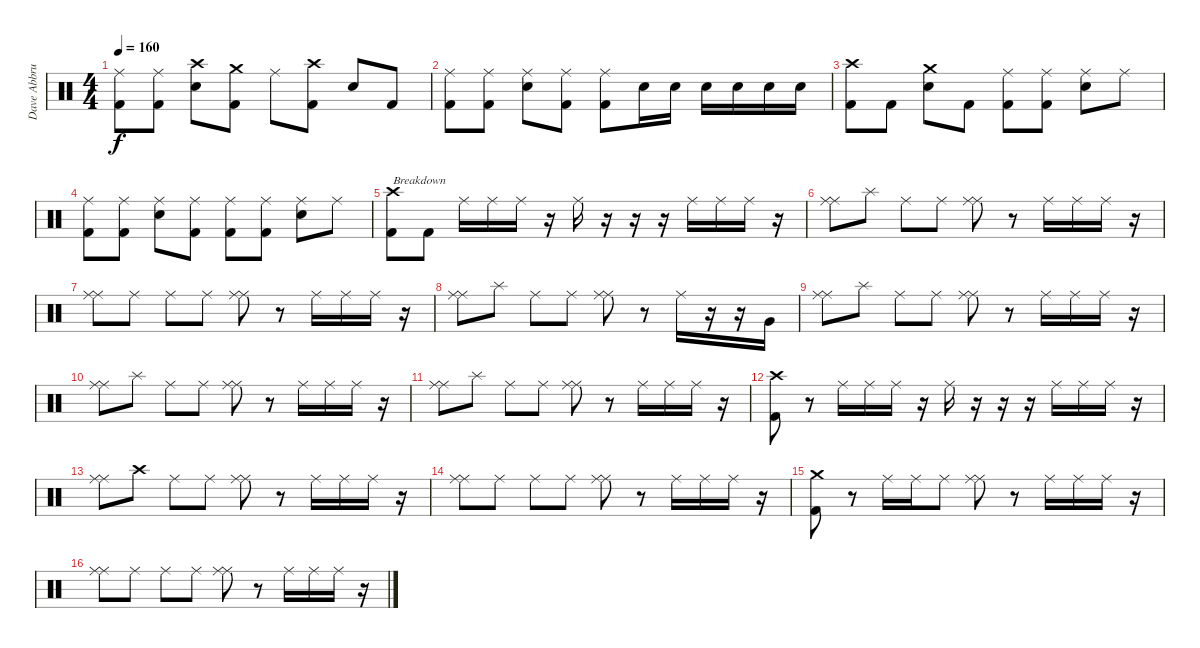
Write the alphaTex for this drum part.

\track ("Dave Abbruzzese" "Dave Abbru") {instrument percussion}
\staff {score}
\articulation defaults
\ts (4 4)
\tempo 160
\clef neutral
\ks c
("Ride (middle)" "Kick (hit) 2").8{dy f} ("Ride (middle)" "Kick (hit) 2").8 ("Crash high (hit)" "Snare (hit) 2").8 ("Crash medium (hit)" "Kick (hit) 2").8 "Ride (middle)".8 ("Crash high (hit)" "Kick (hit) 2").8 "Snare (hit) 2".8 "Kick (hit) 2".8 |
("Ride (middle)" "Kick (hit) 2").8 ("Ride (middle)" "Kick (hit) 2").8 ("Ride (middle)" "Snare (hit) 2").8 ("Ride (middle)" "Kick (hit) 2").8 ("Ride (middle)" "Kick (hit) 2").8 "Snare (hit) 2".16 "Snare (hit) 2".16 "Snare (hit) 2".16 "Snare (hit) 2".16 "Snare (hit) 2".16 "Snare (hit) 2".16 |
("Crash high (hit)" "Kick (hit) 2").8 "Kick (hit) 2".8 ("Crash medium (hit)" "Snare (hit) 2").8 "Kick (hit) 2".8 ("Ride (middle)" "Kick (hit) 2").8 ("Ride (middle)" "Kick (hit) 2").8 ("Ride (middle)" "Snare (hit) 2").8 "Ride (middle)".8 |
("Ride (middle)" "Kick (hit) 2").8 ("Ride (middle)" "Kick (hit) 2").8 ("Ride (middle)" "Snare (hit) 2").8 ("Ride (middle)" "Kick (hit) 2").8 ("Ride (middle)" "Kick (hit) 2").8 ("Ride (middle)" "Kick (hit) 2").8 ("Ride (middle)" "Snare (hit) 2").8 "Ride (middle)".8 |
("Crash high (hit)" "Kick (hit) 2").8{txt "Breakdown"} "Kick (hit) 2".8 "Ride (middle)".16 "Ride (middle)".16 "Ride (middle)".16 r.16 "Ride (middle)".16 r.16 r.16 r.16 "Ride (middle)".16 "Ride (middle)".16 "Ride (middle)".16 r.16 |
("Ride (middle)" "Ride (middle)").8 "Splash (hit)".8 "Ride (middle)".8 "Ride (middle)".8 ("Ride (middle)" "Ride (middle)").8 r.8 "Ride (middle)".16 "Ride (middle)".16 "Ride (middle)".16 r.16 |
("Ride (middle)" "Ride (middle)").8 "Ride (middle)".8 "Ride (middle)".8 "Ride (middle)".8 ("Ride (middle)" "Ride (middle)").8 r.8 "Ride (middle)".16 "Ride (middle)".16 "Ride (middle)".16 r.16 |
("Ride (middle)" "Ride (middle)").8 "Splash (hit)".8 "Ride (middle)".8 "Ride (middle)".8 ("Ride (middle)" "Ride (middle)").8 r.8 "Ride (middle)".16 r.16 r.16 "Very Low Tom (hit)".16 |
("Ride (middle)" "Ride (middle)").8 "Splash (hit)".8 "Ride (middle)".8 "Ride (middle)".8 ("Ride (middle)" "Ride (middle)").8 r.8 "Ride (middle)".16 "Ride (middle)".16 "Ride (middle)".16 r.16 |
("Ride (middle)" "Ride (middle)").8 "Splash (hit)".8 "Ride (middle)".8 "Ride (middle)".8 ("Ride (middle)" "Ride (middle)").8 r.8 "Ride (middle)".16 "Ride (middle)".16 "Ride (middle)".16 r.16 |
("Ride (middle)" "Ride (middle)").8 "Splash (hit)".8 "Ride (middle)".8 "Ride (middle)".8 ("Ride (middle)" "Ride (middle)").8 r.8 "Ride (middle)".16 "Ride (middle)".16 "Ride (middle)".16 r.16 |
("Crash high (hit)" "Kick (hit) 2").8 r.8 "Ride (middle)".16 "Ride (middle)".16 "Ride (middle)".16 r.16 "Ride (middle)".16 r.16 r.16 r.16 "Ride (middle)".16 "Ride (middle)".16 "Ride (middle)".16 r.16 |
("Ride (middle)" "Ride (middle)").8 "Crash high (hit)".8 "Ride (middle)".8 "Ride (middle)".8 ("Ride (middle)" "Ride (middle)").8 r.8 "Ride (middle)".16 "Ride (middle)".16 "Ride (middle)".16 r.16 |
("Ride (middle)" "Ride (middle)").8 "Ride (middle)".8 "Ride (middle)".8 "Ride (middle)".8 ("Ride (middle)" "Ride (middle)").8 r.8 "Ride (middle)".16 "Ride (middle)".16 "Ride (middle)".16 r.16 |
("Crash medium (hit)" "Kick (hit) 2").8 r.8 "Ride (middle)".16 "Ride (middle)".16 "Ride (middle)".8 ("Ride (middle)" "Ride (middle)").8 r.8 "Ride (middle)".16 "Ride (middle)".16 "Ride (middle)".16 r.16 |
("Ride (middle)" "Ride (middle)").8 "Ride (middle)".8 "Ride (middle)".8 "Ride (middle)".8 ("Ride (middle)" "Ride (middle)").8 r.8 "Ride (middle)".16 "Ride (middle)".16 "Ride (middle)".16 r.16
